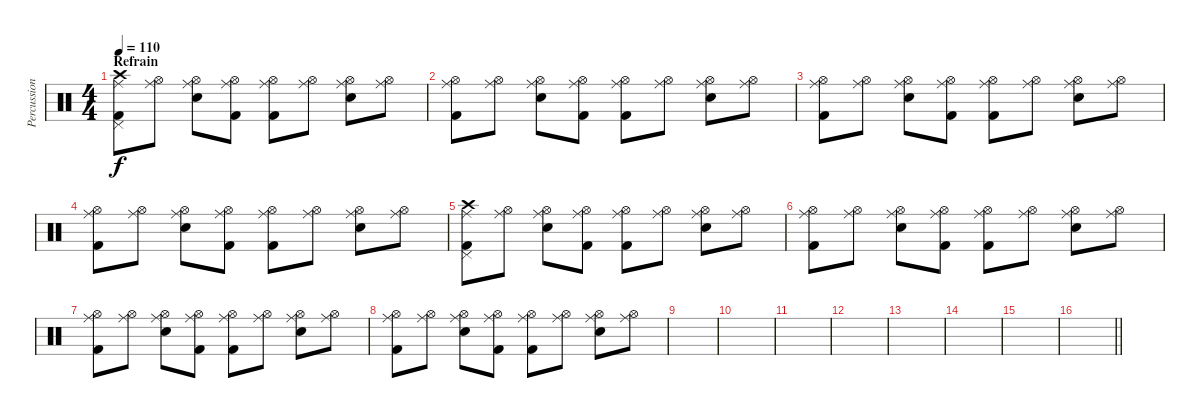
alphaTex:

\track ("Percussions" "Percussion") {instrument percussion}
\staff {score}
\articulation defaults
\ts (4 4)
\section ("" "Refrain")
\tempo 110
\clef neutral
\ks c
("Crash high (hit)" "Pedal Hi-Hat (hit)" "Kick (hit) 2" "Ride (middle)").8{dy f volume 13} ("Hi-Hat (open)" "Ride (middle)").8 ("Hi-Hat (open)" "Electric Snare (hit)" "Ride (middle)").8 ("Hi-Hat (open)" "Kick (hit) 2" "Ride (middle)").8 ("Hi-Hat (open)" "Kick (hit) 2" "Ride (middle)").8 ("Hi-Hat (open)" "Ride (middle)").8 ("Hi-Hat (open)" "Electric Snare (hit)" "Ride (middle)").8 ("Hi-Hat (open)" "Ride (middle)").8 |
("Hi-Hat (open)" "Kick (hit) 2" "Ride (middle)").8 ("Hi-Hat (open)" "Ride (middle)").8 ("Hi-Hat (open)" "Electric Snare (hit)" "Ride (middle)").8 ("Hi-Hat (open)" "Kick (hit) 2" "Ride (middle)").8 ("Hi-Hat (open)" "Kick (hit) 2" "Ride (middle)").8 ("Hi-Hat (open)" "Ride (middle)").8 ("Hi-Hat (open)" "Electric Snare (hit)" "Ride (middle)").8 ("Hi-Hat (open)" "Ride (middle)").8 |
("Hi-Hat (open)" "Kick (hit) 2" "Ride (middle)").8 ("Hi-Hat (open)" "Ride (middle)").8 ("Hi-Hat (open)" "Electric Snare (hit)" "Ride (middle)").8 ("Hi-Hat (open)" "Kick (hit) 2" "Ride (middle)").8 ("Hi-Hat (open)" "Kick (hit) 2" "Ride (middle)").8 ("Hi-Hat (open)" "Ride (middle)").8 ("Hi-Hat (open)" "Electric Snare (hit)" "Ride (middle)").8 ("Hi-Hat (open)" "Ride (middle)").8 |
("Hi-Hat (open)" "Kick (hit) 2" "Ride (middle)").8 ("Hi-Hat (open)" "Ride (middle)").8 ("Hi-Hat (open)" "Electric Snare (hit)" "Ride (middle)").8 ("Hi-Hat (open)" "Kick (hit) 2" "Ride (middle)").8 ("Hi-Hat (open)" "Kick (hit) 2" "Ride (middle)").8 ("Hi-Hat (open)" "Ride (middle)").8 ("Hi-Hat (open)" "Electric Snare (hit)" "Ride (middle)").8 ("Hi-Hat (open)" "Ride (middle)").8 |
("Crash high (hit)" "Pedal Hi-Hat (hit)" "Kick (hit) 2" "Ride (middle)").8 ("Hi-Hat (open)" "Ride (middle)").8 ("Hi-Hat (open)" "Electric Snare (hit)" "Ride (middle)").8 ("Hi-Hat (open)" "Kick (hit) 2" "Ride (middle)").8 ("Hi-Hat (open)" "Kick (hit) 2" "Ride (middle)").8 ("Hi-Hat (open)" "Ride (middle)").8 ("Hi-Hat (open)" "Electric Snare (hit)" "Ride (middle)").8 ("Hi-Hat (open)" "Ride (middle)").8 |
("Hi-Hat (open)" "Kick (hit) 2" "Ride (middle)").8 ("Hi-Hat (open)" "Ride (middle)").8 ("Hi-Hat (open)" "Electric Snare (hit)" "Ride (middle)").8 ("Hi-Hat (open)" "Kick (hit) 2" "Ride (middle)").8 ("Hi-Hat (open)" "Kick (hit) 2" "Ride (middle)").8 ("Hi-Hat (open)" "Ride (middle)").8 ("Hi-Hat (open)" "Electric Snare (hit)" "Ride (middle)").8 ("Hi-Hat (open)" "Ride (middle)").8 |
("Hi-Hat (open)" "Kick (hit) 2" "Ride (middle)").8 ("Hi-Hat (open)" "Ride (middle)").8 ("Hi-Hat (open)" "Electric Snare (hit)" "Ride (middle)").8 ("Hi-Hat (open)" "Kick (hit) 2" "Ride (middle)").8 ("Hi-Hat (open)" "Kick (hit) 2" "Ride (middle)").8 ("Hi-Hat (open)" "Ride (middle)").8 ("Hi-Hat (open)" "Electric Snare (hit)" "Ride (middle)").8 ("Hi-Hat (open)" "Ride (middle)").8 |
("Hi-Hat (open)" "Kick (hit) 2" "Ride (middle)").8 ("Hi-Hat (open)" "Ride (middle)").8 ("Hi-Hat (open)" "Electric Snare (hit)" "Ride (middle)").8 ("Hi-Hat (open)" "Kick (hit) 2" "Ride (middle)").8 ("Hi-Hat (open)" "Kick (hit) 2" "Ride (middle)").8 ("Hi-Hat (open)" "Ride (middle)").8 ("Hi-Hat (open)" "Electric Snare (hit)" "Ride (middle)").8 ("Hi-Hat (open)" "Ride (middle)").8 |
|
|
|
|
|
|
|
\barLineRight lightlight
